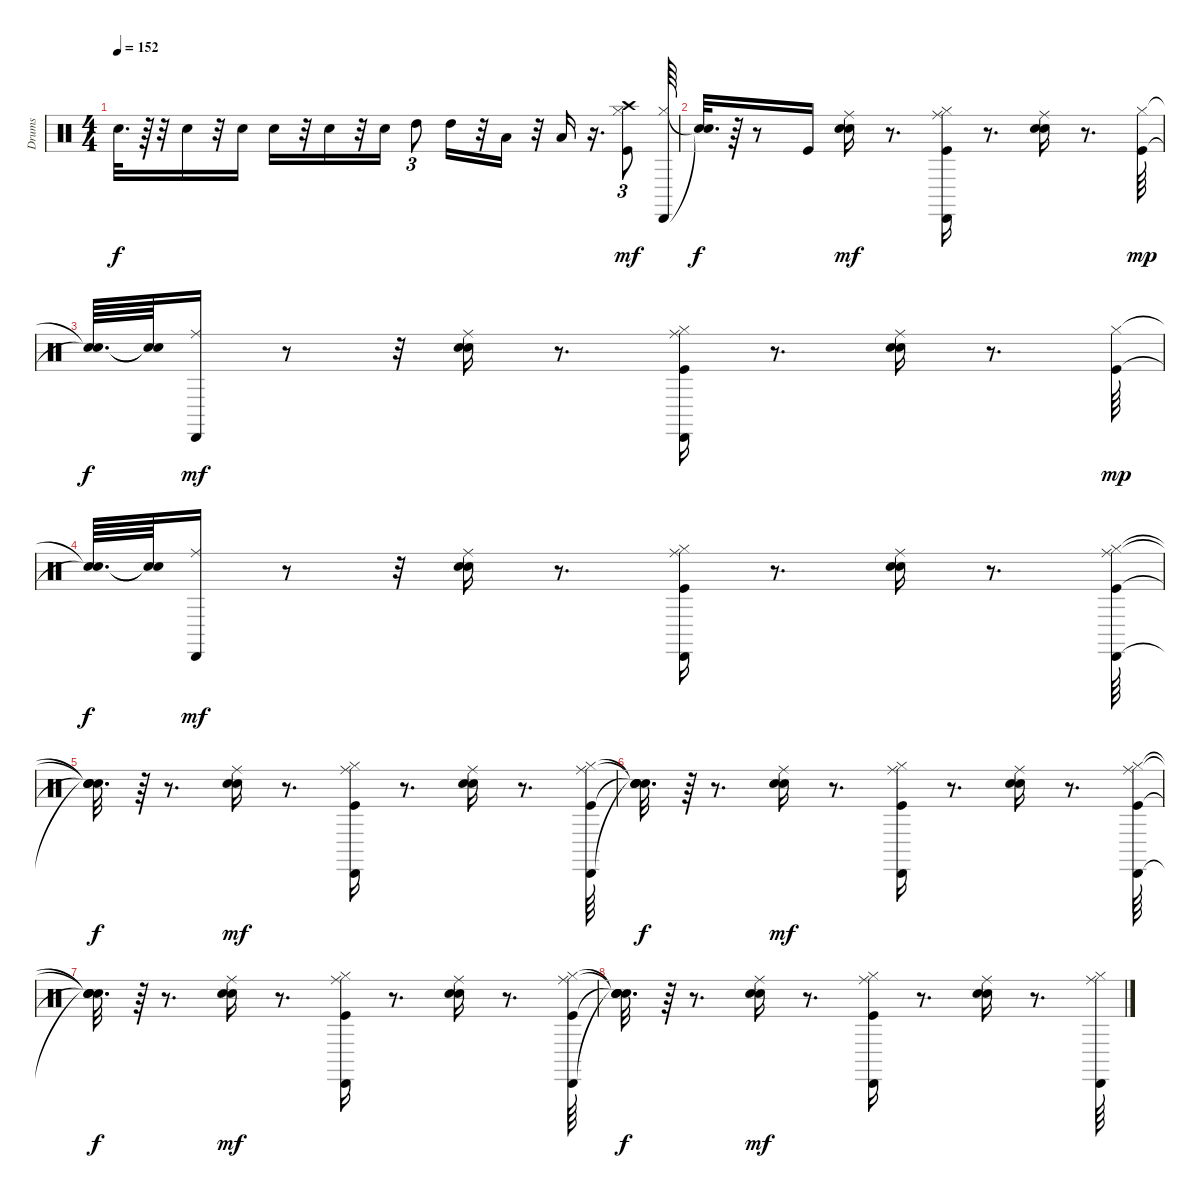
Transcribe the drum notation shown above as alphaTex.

\track ("Drums" "Drums") {instrument percussion}
\staff {score}
\articulation defaults
\ts (4 4)
\tempo 152
\clef neutral
\ks c "Snare (hit)"{t}.32{d dy f}
r.64 r.32 "Snare (hit) 2".16 r.32 "Snare (hit) 2".16 "Snare (hit) 2".16 r.32 "Snare (hit) 2".16 r.32 "Snare (hit) 2".16 "High Tom (hit)".8{tu (3 2)} "High Tom (hit)".16 r.32 "Low Tom (hit)".16 r.32 "Low Floor Tom (hit)".16 r.16{d} ("Kick (hit)" "Hi-Hat (closed)" "Crash high (hit)").8{tu (3 2) dy mf} ("Hi-Hat (closed)" "Cabasa (hit)").64 |
("Snare (hit)"{t} "Snare (hit)"{t}).32{d dy f} r.64 r.8 "Kick (hit)".16 ("Hand Clap (hit)" "Ride (middle)" "Snare (hit) 2").16{dy mf} r.8{d} ("Kick (hit)" "Hi-Hat (closed)" "Ride (middle)" "Cabasa (hit)").16 r.8{d} ("Ride (middle)" "Hand Clap (hit)" "Snare (hit) 2").16 r.8{d} ("Kick (hit)" "Hi-Hat (closed)").64{dy mp} |
("Snare (hit)"{t} "Snare (hit)"{t}).64{d dy f} ("Snare (hit)"{t} "Snare (hit)"{t}).64 ("Ride (middle)" "Cabasa (hit)").16{dy mf} r.8 r.32 ("Hand Clap (hit)" "Ride (middle)" "Snare (hit) 2").16 r.8{d} ("Kick (hit)" "Hi-Hat (closed)" "Ride (middle)" "Cabasa (hit)").16 r.8{d} ("Hand Clap (hit)" "Ride (middle)" "Snare (hit) 2").16 r.8{d} ("Kick (hit)" "Hi-Hat (closed)").64{dy mp} |
("Snare (hit)"{t} "Snare (hit)"{t}).64{d dy f} ("Snare (hit)"{t} "Snare (hit)"{t}).64 ("Ride (middle)" "Cabasa (hit)").16{dy mf} r.8 r.32 ("Hand Clap (hit)" "Ride (middle)" "Snare (hit) 2").16 r.8{d} ("Kick (hit)" "Hi-Hat (closed)" "Ride (middle)" "Cabasa (hit)").16 r.8{d} ("Snare (hit) 2" "Hand Clap (hit)" "Ride (middle)").16 r.8{d} ("Kick (hit)" "Hi-Hat (closed)" "Ride (middle)" "Cabasa (hit)").64 |
("Snare (hit)"{t} "Snare (hit)"{t} "Snare (hit)"{t} "Snare (hit)"{t}).32{d dy f} r.64 r.8{d} ("Hand Clap (hit)" "Snare (hit) 2" "Ride (middle)").16{dy mf} r.8{d} ("Kick (hit)" "Hi-Hat (closed)" "Ride (middle)" "Cabasa (hit)").16 r.8{d} ("Hand Clap (hit)" "Ride (middle)" "Snare (hit) 2").16 r.8{d} ("Kick (hit)" "Hi-Hat (closed)" "Ride (middle)" "Cabasa (hit)").64 |
("Snare (hit)"{t} "Snare (hit)"{t} "Snare (hit)"{t} "Snare (hit)"{t}).32{d dy f} r.64 r.8{d} ("Ride (middle)" "Hand Clap (hit)" "Snare (hit) 2").16{dy mf} r.8{d} ("Kick (hit)" "Hi-Hat (closed)" "Ride (middle)" "Cabasa (hit)").16 r.8{d} ("Hand Clap (hit)" "Ride (middle)" "Snare (hit) 2").16 r.8{d} ("Kick (hit)" "Hi-Hat (closed)" "Ride (middle)" "Cabasa (hit)").64 |
("Snare (hit)"{t} "Snare (hit)"{t} "Snare (hit)"{t} "Snare (hit)"{t}).32{d dy f} r.64 r.8{d} ("Hand Clap (hit)" "Ride (middle)" "Snare (hit) 2").16{dy mf} r.8{d} ("Kick (hit)" "Hi-Hat (closed)" "Ride (middle)" "Cabasa (hit)").16 r.8{d} ("Hand Clap (hit)" "Snare (hit) 2" "Ride (middle)").16 r.8{d} ("Kick (hit)" "Hi-Hat (closed)" "Ride (middle)" "Cabasa (hit)").64 |
("Snare (hit)"{t} "Snare (hit)"{t} "Snare (hit)"{t} "Snare (hit)"{t}).32{d dy f} r.64 r.8{d} ("Hand Clap (hit)" "Ride (middle)" "Snare (hit) 2").16{dy mf} r.8{d} ("Kick (hit)" "Hi-Hat (closed)" "Ride (middle)" "Cabasa (hit)").16 r.8{d} ("Hand Clap (hit)" "Ride (middle)" "Snare (hit) 2").16 r.8{d} ("Hi-Hat (closed)" "Ride (middle)" "Cabasa (hit)").64
